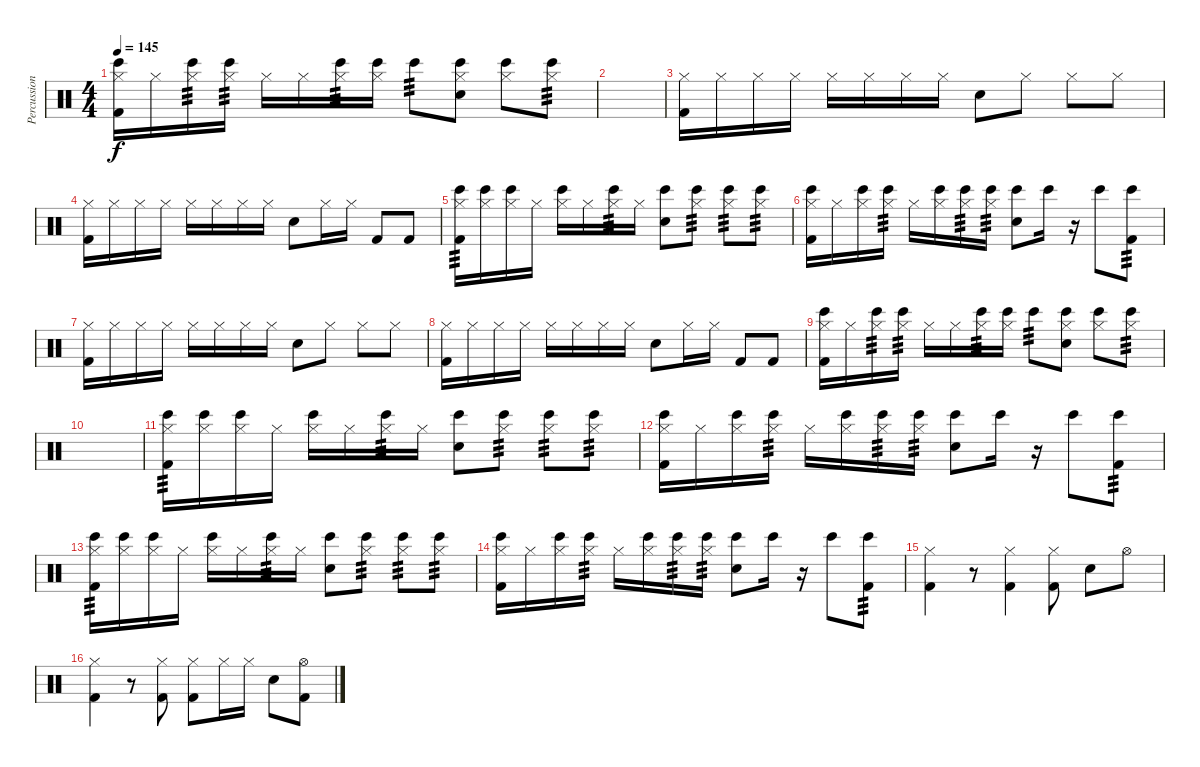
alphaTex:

\track ("Percussion" "Percussion") {instrument percussion}
\staff {score}
\articulation defaults
\ts (4 4)
\tempo 145
\clef neutral
\ks c
("Hi-Hat (closed)" "Bongo High (hit)" "Kick (hit) 2").16{dy f} "Hi-Hat (closed)".16 ("Hi-Hat (closed)" "Bongo High (hit)").16{tp 3} ("Hi-Hat (closed)" "Bongo High (hit)").16{tp 3} "Hi-Hat (closed)".16 "Hi-Hat (closed)".16 ("Hi-Hat (closed)" "Bongo High (hit)").16{tp 3} ("Hi-Hat (closed)" "Bongo High (hit)").16 "Bongo High (hit)".8{tp 3} ("Hi-Hat (closed)" "Hand Clap (hit)" "Bongo High (hit)").8 ("Hi-Hat (closed)" "Bongo High (hit)").8 ("Hi-Hat (closed)" "Bongo High (hit)").8{tp 3} |
|
("Hi-Hat (closed)" "Kick (hit) 2").16 "Hi-Hat (closed)".16 "Hi-Hat (closed)".16 "Hi-Hat (closed)".16 "Hi-Hat (closed)".16 "Hi-Hat (closed)".16 "Hi-Hat (closed)".16 "Hi-Hat (closed)".16 "Hand Clap (hit)".8 "Hi-Hat (closed)".8 "Hi-Hat (closed)".8 "Hi-Hat (closed)".8 |
("Hi-Hat (closed)" "Kick (hit) 2").16 "Hi-Hat (closed)".16 "Hi-Hat (closed)".16 "Hi-Hat (closed)".16 "Hi-Hat (closed)".16 "Hi-Hat (closed)".16 "Hi-Hat (closed)".16 "Hi-Hat (closed)".16 "Hand Clap (hit)".8 "Hi-Hat (closed)".16 "Hi-Hat (closed)".16 "Kick (hit) 2".8 "Kick (hit) 2".8 |
("Hi-Hat (closed)" "Bongo High (hit)" "Kick (hit) 2").16{tp 3} ("Hi-Hat (closed)" "Bongo High (hit)").16 ("Hi-Hat (closed)" "Bongo High (hit)").16 "Hi-Hat (closed)".16 ("Hi-Hat (closed)" "Bongo High (hit)").16 "Hi-Hat (closed)".16 ("Hi-Hat (closed)" "Bongo High (hit)").16{tp 3} "Hi-Hat (closed)".16 ("Hand Clap (hit)" "Bongo High (hit)").8 ("Hi-Hat (closed)" "Bongo High (hit)").8{tp 3} ("Hi-Hat (closed)" "Bongo High (hit)").8{tp 3} ("Hi-Hat (closed)" "Bongo High (hit)").8{tp 3} |
("Hi-Hat (closed)" "Bongo High (hit)" "Kick (hit) 2").16 "Hi-Hat (closed)".16 ("Hi-Hat (closed)" "Bongo High (hit)").16 ("Hi-Hat (closed)" "Bongo High (hit)").16{tp 3} "Hi-Hat (closed)".16 ("Hi-Hat (closed)" "Bongo High (hit)").16 ("Hi-Hat (closed)" "Bongo High (hit)").16{tp 3} ("Hi-Hat (closed)" "Bongo High (hit)").16{tp 3} ("Hand Clap (hit)" "Bongo High (hit)").8 "Bongo High (hit)".16 r.16 "Bongo High (hit)".8 ("Bongo High (hit)" "Kick (hit) 2").8{tp 3} |
("Hi-Hat (closed)" "Kick (hit) 2").16 "Hi-Hat (closed)".16 "Hi-Hat (closed)".16 "Hi-Hat (closed)".16 "Hi-Hat (closed)".16 "Hi-Hat (closed)".16 "Hi-Hat (closed)".16 "Hi-Hat (closed)".16 "Hand Clap (hit)".8 "Hi-Hat (closed)".8 "Hi-Hat (closed)".8 "Hi-Hat (closed)".8 |
("Hi-Hat (closed)" "Kick (hit) 2").16 "Hi-Hat (closed)".16 "Hi-Hat (closed)".16 "Hi-Hat (closed)".16 "Hi-Hat (closed)".16 "Hi-Hat (closed)".16 "Hi-Hat (closed)".16 "Hi-Hat (closed)".16 "Hand Clap (hit)".8 "Hi-Hat (closed)".16 "Hi-Hat (closed)".16 "Kick (hit) 2".8 "Kick (hit) 2".8 |
("Hi-Hat (closed)" "Bongo High (hit)" "Kick (hit) 2").16 "Hi-Hat (closed)".16 ("Hi-Hat (closed)" "Bongo High (hit)").16{tp 3} ("Hi-Hat (closed)" "Bongo High (hit)").16{tp 3} "Hi-Hat (closed)".16 "Hi-Hat (closed)".16 ("Hi-Hat (closed)" "Bongo High (hit)").16{tp 3} ("Hi-Hat (closed)" "Bongo High (hit)").16 "Bongo High (hit)".8{tp 3} ("Hi-Hat (closed)" "Hand Clap (hit)" "Bongo High (hit)").8 ("Hi-Hat (closed)" "Bongo High (hit)").8 ("Hi-Hat (closed)" "Bongo High (hit)").8{tp 3} |
|
("Hi-Hat (closed)" "Bongo High (hit)" "Kick (hit) 2").16{tp 3} ("Hi-Hat (closed)" "Bongo High (hit)").16 ("Hi-Hat (closed)" "Bongo High (hit)").16 "Hi-Hat (closed)".16 ("Hi-Hat (closed)" "Bongo High (hit)").16 "Hi-Hat (closed)".16 ("Hi-Hat (closed)" "Bongo High (hit)").16{tp 3} "Hi-Hat (closed)".16 ("Hand Clap (hit)" "Bongo High (hit)").8 ("Hi-Hat (closed)" "Bongo High (hit)").8{tp 3} ("Hi-Hat (closed)" "Bongo High (hit)").8{tp 3} ("Hi-Hat (closed)" "Bongo High (hit)").8{tp 3} |
("Hi-Hat (closed)" "Bongo High (hit)" "Kick (hit) 2").16 "Hi-Hat (closed)".16 ("Hi-Hat (closed)" "Bongo High (hit)").16 ("Hi-Hat (closed)" "Bongo High (hit)").16{tp 3} "Hi-Hat (closed)".16 ("Hi-Hat (closed)" "Bongo High (hit)").16 ("Hi-Hat (closed)" "Bongo High (hit)").16{tp 3} ("Hi-Hat (closed)" "Bongo High (hit)").16{tp 3} ("Hand Clap (hit)" "Bongo High (hit)").8 "Bongo High (hit)".16 r.16 "Bongo High (hit)".8 ("Bongo High (hit)" "Kick (hit) 2").8{tp 3} |
("Hi-Hat (closed)" "Bongo High (hit)" "Kick (hit) 2").16{tp 3} ("Hi-Hat (closed)" "Bongo High (hit)").16 ("Hi-Hat (closed)" "Bongo High (hit)").16 "Hi-Hat (closed)".16 ("Hi-Hat (closed)" "Bongo High (hit)").16 "Hi-Hat (closed)".16 ("Hi-Hat (closed)" "Bongo High (hit)").16{tp 3} "Hi-Hat (closed)".16 ("Hand Clap (hit)" "Bongo High (hit)").8 ("Hi-Hat (closed)" "Bongo High (hit)").8{tp 3} ("Hi-Hat (closed)" "Bongo High (hit)").8{tp 3} ("Hi-Hat (closed)" "Bongo High (hit)").8{tp 3} |
("Hi-Hat (closed)" "Bongo High (hit)" "Kick (hit) 2").16 "Hi-Hat (closed)".16 ("Hi-Hat (closed)" "Bongo High (hit)").16 ("Hi-Hat (closed)" "Bongo High (hit)").16{tp 3} "Hi-Hat (closed)".16 ("Hi-Hat (closed)" "Bongo High (hit)").16 ("Hi-Hat (closed)" "Bongo High (hit)").16{tp 3} ("Hi-Hat (closed)" "Bongo High (hit)").16{tp 3} ("Hand Clap (hit)" "Bongo High (hit)").8 "Bongo High (hit)".16 r.16 "Bongo High (hit)".8 ("Bongo High (hit)" "Kick (hit) 2").8{tp 3} |
("Hi-Hat (closed)" "Kick (hit) 2").4 r.8 ("Hi-Hat (closed)" "Kick (hit) 2").4 ("Hi-Hat (closed)" "Kick (hit) 2").8 "Hand Clap (hit)".8 "Hi-Hat (open)".8 |
("Hi-Hat (closed)" "Kick (hit) 2").4 r.8 ("Hi-Hat (closed)" "Kick (hit) 2").8 ("Hi-Hat (closed)" "Kick (hit) 2").8 "Hi-Hat (closed)".16 "Hi-Hat (closed)".16 "Hand Clap (hit)".8 ("Hi-Hat (open)" "Kick (hit) 2").8
